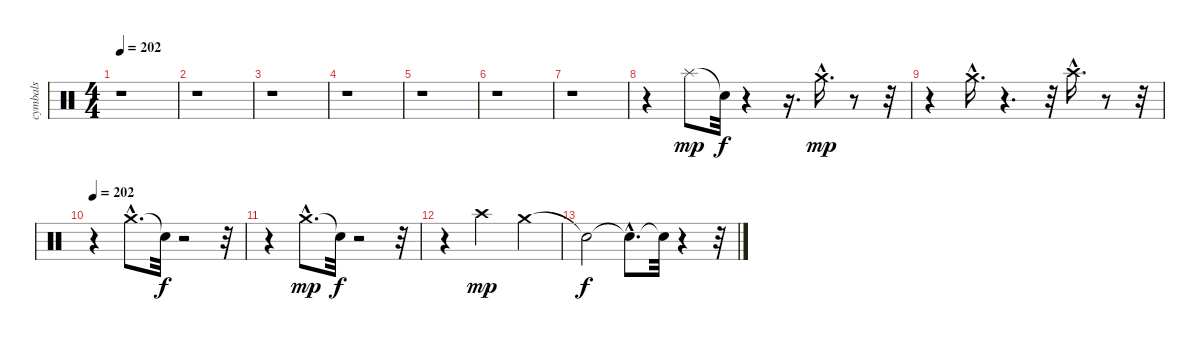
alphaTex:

\track ("cymbals" "cymbals") {instrument percussion}
\staff {score}
\articulation defaults
\ts (4 4)
\tempo 202
\clef neutral
\ks c
r.1{dy f} |
r.1 |
r.1 |
r.1 |
r.1 |
r.1 |
r.1 |
r.4 "Splash (hit)".8{dy mp} "Snare (hit)"{t}.32{dy f} r.4 r.16{d} "Crash medium (hit)"{hac}.16{d dy mp} r.8 r.32 |
r.4 "Crash medium (hit)"{hac}.16{d} r.4{d} r.32 "Crash high (hit)"{hac}.16{d} r.8 r.32 |
\tempo 202
r.4 "Crash medium (hit)"{hac}.8{d} "Snare (hit)"{t}.32{dy f} r.2 r.32 |
r.4 "Crash medium (hit)"{hac}.8{d dy mp} "Snare (hit)"{t}.32{dy f} r.2 r.32 |
r.4 "Crash high (hit)".2{dy mp} "Crash medium (hit)".4 |
"Snare (hit)"{t}.2{dy f} "Snare (hit)"{hac t}.8{d} "Snare (hit)"{t}.32 r.4 r.32
